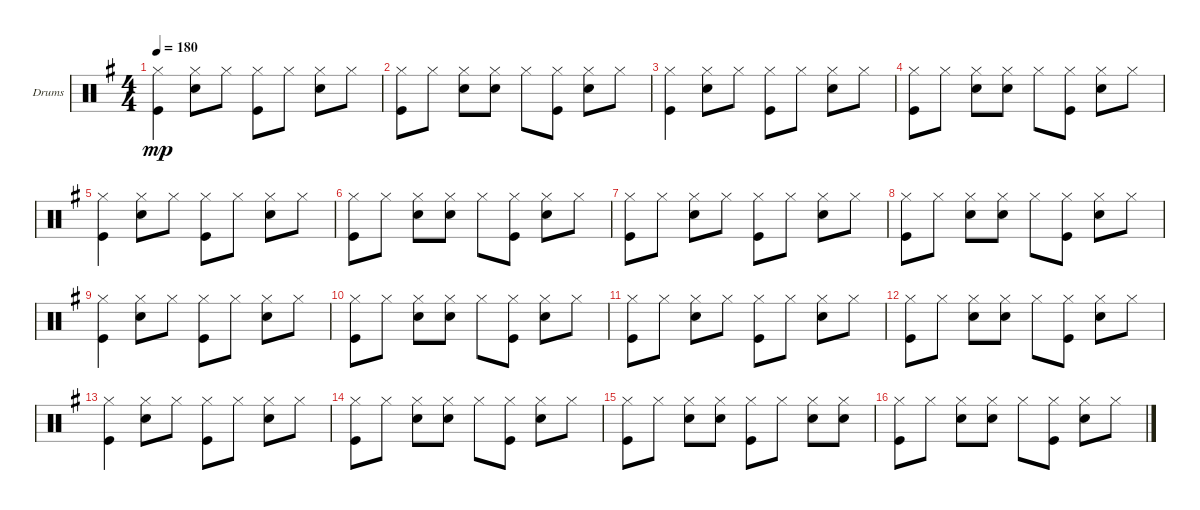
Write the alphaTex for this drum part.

\defaultSystemsLayout 4
\bracketExtendMode groupsimilarinstruments
\firstSystemTrackNameOrientation horizontal
\otherSystemsTrackNameOrientation horizontal
\track ("Drumkit" "Drums") {instrument percussion}
\staff {score}
\articulation defaults
\ts (4 4)
\tempo 180
\clef neutral
\ks g
("Hi-Hat (closed)" "Kick (hit)").4{dy mp} ("Hi-Hat (closed)" "Snare (hit) 2").8 "Hi-Hat (closed)".8 ("Hi-Hat (closed)" "Kick (hit)").8 "Hi-Hat (closed)".8 ("Hi-Hat (closed)" "Snare (hit) 2").8 "Hi-Hat (closed)".8 |
("Hi-Hat (closed)" "Kick (hit)").8 "Hi-Hat (closed)".8 ("Hi-Hat (closed)" "Snare (hit) 2").8 ("Snare (hit) 2" "Hi-Hat (closed)").8 "Hi-Hat (closed)".8 ("Hi-Hat (closed)" "Kick (hit)").8 ("Hi-Hat (closed)" "Snare (hit) 2").8 "Hi-Hat (closed)".8 |
("Hi-Hat (closed)" "Kick (hit)").4 ("Hi-Hat (closed)" "Snare (hit) 2").8 "Hi-Hat (closed)".8 ("Hi-Hat (closed)" "Kick (hit)").8 "Hi-Hat (closed)".8 ("Hi-Hat (closed)" "Snare (hit) 2").8 "Hi-Hat (closed)".8 |
("Hi-Hat (closed)" "Kick (hit)").8 "Hi-Hat (closed)".8 ("Hi-Hat (closed)" "Snare (hit) 2").8 ("Snare (hit) 2" "Hi-Hat (closed)").8 "Hi-Hat (closed)".8 ("Hi-Hat (closed)" "Kick (hit)").8 ("Hi-Hat (closed)" "Snare (hit) 2").8 "Hi-Hat (closed)".8 |
("Hi-Hat (closed)" "Kick (hit)").4 ("Hi-Hat (closed)" "Snare (hit) 2").8 "Hi-Hat (closed)".8 ("Hi-Hat (closed)" "Kick (hit)").8 "Hi-Hat (closed)".8 ("Hi-Hat (closed)" "Snare (hit) 2").8 "Hi-Hat (closed)".8 |
("Hi-Hat (closed)" "Kick (hit)").8 "Hi-Hat (closed)".8 ("Hi-Hat (closed)" "Snare (hit) 2").8 ("Snare (hit) 2" "Hi-Hat (closed)").8 "Hi-Hat (closed)".8 ("Hi-Hat (closed)" "Kick (hit)").8 ("Hi-Hat (closed)" "Snare (hit) 2").8 "Hi-Hat (closed)".8 |
("Hi-Hat (closed)" "Kick (hit)").8 "Hi-Hat (closed)".8 ("Hi-Hat (closed)" "Snare (hit) 2").8 "Hi-Hat (closed)".8 ("Hi-Hat (closed)" "Kick (hit)").8 "Hi-Hat (closed)".8 ("Hi-Hat (closed)" "Snare (hit) 2").8 "Hi-Hat (closed)".8 |
("Hi-Hat (closed)" "Kick (hit)").8 "Hi-Hat (closed)".8 ("Hi-Hat (closed)" "Snare (hit) 2").8 ("Snare (hit) 2" "Hi-Hat (closed)").8 "Hi-Hat (closed)".8 ("Hi-Hat (closed)" "Kick (hit)").8 ("Hi-Hat (closed)" "Snare (hit) 2").8 "Hi-Hat (closed)".8 |
("Hi-Hat (closed)" "Kick (hit)").4 ("Hi-Hat (closed)" "Snare (hit) 2").8 "Hi-Hat (closed)".8 ("Hi-Hat (closed)" "Kick (hit)").8 "Hi-Hat (closed)".8 ("Hi-Hat (closed)" "Snare (hit) 2").8 "Hi-Hat (closed)".8 |
("Hi-Hat (closed)" "Kick (hit)").8 "Hi-Hat (closed)".8 ("Hi-Hat (closed)" "Snare (hit) 2").8 ("Snare (hit) 2" "Hi-Hat (closed)").8 "Hi-Hat (closed)".8 ("Hi-Hat (closed)" "Kick (hit)").8 ("Hi-Hat (closed)" "Snare (hit) 2").8 "Hi-Hat (closed)".8 |
("Hi-Hat (closed)" "Kick (hit)").8 "Hi-Hat (closed)".8 ("Hi-Hat (closed)" "Snare (hit) 2").8 "Hi-Hat (closed)".8 ("Hi-Hat (closed)" "Kick (hit)").8 "Hi-Hat (closed)".8 ("Hi-Hat (closed)" "Snare (hit) 2").8 "Hi-Hat (closed)".8 |
("Hi-Hat (closed)" "Kick (hit)").8 "Hi-Hat (closed)".8 ("Hi-Hat (closed)" "Snare (hit) 2").8 ("Snare (hit) 2" "Hi-Hat (closed)").8 "Hi-Hat (closed)".8 ("Hi-Hat (closed)" "Kick (hit)").8 ("Hi-Hat (closed)" "Snare (hit) 2").8 "Hi-Hat (closed)".8 |
("Hi-Hat (closed)" "Kick (hit)").4 ("Hi-Hat (closed)" "Snare (hit) 2").8 "Hi-Hat (closed)".8 ("Hi-Hat (closed)" "Kick (hit)").8 "Hi-Hat (closed)".8 ("Hi-Hat (closed)" "Snare (hit) 2").8 "Hi-Hat (closed)".8 |
("Hi-Hat (closed)" "Kick (hit)").8 "Hi-Hat (closed)".8 ("Hi-Hat (closed)" "Snare (hit) 2").8 ("Snare (hit) 2" "Hi-Hat (closed)").8 "Hi-Hat (closed)".8 ("Hi-Hat (closed)" "Kick (hit)").8 ("Hi-Hat (closed)" "Snare (hit) 2").8 "Hi-Hat (closed)".8 |
("Hi-Hat (closed)" "Kick (hit)").8 "Hi-Hat (closed)".8 ("Hi-Hat (closed)" "Snare (hit) 2").8 ("Snare (hit) 2" "Hi-Hat (closed)").8 ("Hi-Hat (closed)" "Kick (hit)").8 "Hi-Hat (closed)".8 ("Hi-Hat (closed)" "Snare (hit) 2").8 ("Snare (hit) 2" "Hi-Hat (closed)").8 |
("Hi-Hat (closed)" "Kick (hit)").8 "Hi-Hat (closed)".8 ("Hi-Hat (closed)" "Snare (hit) 2").8 ("Snare (hit) 2" "Hi-Hat (closed)").8 "Hi-Hat (closed)".8 ("Hi-Hat (closed)" "Kick (hit)").8 ("Hi-Hat (closed)" "Snare (hit) 2").8 "Hi-Hat (closed)".8
